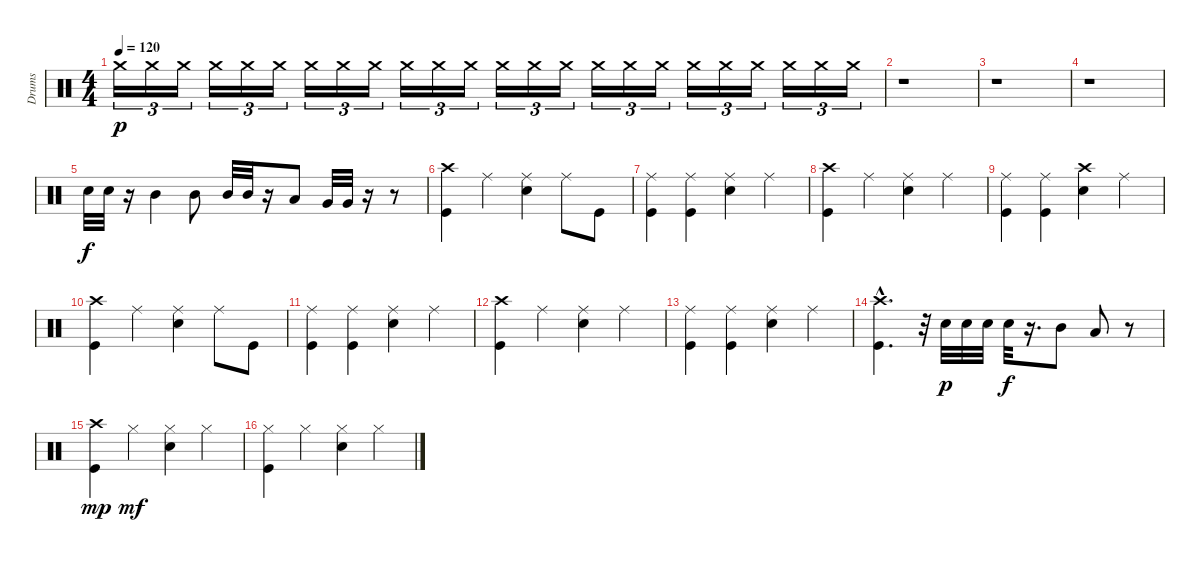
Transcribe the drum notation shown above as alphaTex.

\track ("Drums" "Drums") {instrument percussion}
\staff {score}
\articulation defaults
\ts (4 4)
\tempo 120
\clef neutral
\ks c "Crash medium (hit)".16{tu (3 2) dy p volume 16} "Crash medium (hit)".16{tu (3 2)} "Crash medium (hit)".16{tu (3 2)} "Crash medium (hit)".16{tu (3 2)} "Crash medium (hit)".16{tu (3 2)} "Crash medium (hit)".16{tu (3 2)} "Crash medium (hit)".16{tu (3 2)} "Crash medium (hit)".16{tu (3 2)} "Crash medium (hit)".16{tu (3 2)} "Crash medium (hit)".16{tu (3 2)} "Crash medium (hit)".16{tu (3 2)} "Crash medium (hit)".16{tu (3 2)} "Crash medium (hit)".16{tu (3 2)} "Crash medium (hit)".16{tu (3 2)} "Crash medium (hit)".16{tu (3 2)} "Crash medium (hit)".16{tu (3 2)} "Crash medium (hit)".16{tu (3 2)} "Crash medium (hit)".16{tu (3 2)} "Crash medium (hit)".16{tu (3 2)} "Crash medium (hit)".16{tu (3 2)} "Crash medium (hit)".16{tu (3 2)} "Crash medium (hit)".16{tu (3 2)} "Crash medium (hit)".16{tu (3 2)} "Crash medium (hit)".16{tu (3 2)}
|
r.1 |
r.1 |
r.1 |
"Snare (hit) 2".32{dy f} "Snare (hit) 2".32 r.16 "Mid Tom (hit)".4 "Mid Tom (hit)".8 "Mid Tom (hit)".32 "Mid Tom (hit)".32 r.16 "Low Tom (hit)".8 "Very Low Tom (hit)".32 "Very Low Tom (hit)".32 r.16 r.8 |
("Crash high (hit)" "Kick (hit)").4 "Ride (middle)".4 ("Ride (middle)" "Snare (hit) 2").4 "Ride (middle)".8 "Kick (hit)".8 |
("Ride (middle)" "Kick (hit)").4 ("Ride (middle)" "Kick (hit)").4 ("Ride (middle)" "Snare (hit) 2").4 "Ride (middle)".4 |
("Crash high (hit)" "Kick (hit)").4 "Ride (middle)".4 ("Ride (middle)" "Snare (hit) 2").4 "Ride (middle)".4 |
("Ride (middle)" "Kick (hit)").4 ("Ride (middle)" "Kick (hit)").4 ("Crash high (hit)" "Snare (hit) 2").4 "Ride (middle)".4 |
("Crash high (hit)" "Kick (hit)").4 "Ride (middle)".4 ("Ride (middle)" "Snare (hit) 2").4 "Ride (middle)".8 "Kick (hit)".8 |
("Ride (middle)" "Kick (hit)").4 ("Ride (middle)" "Kick (hit)").4 ("Ride (middle)" "Snare (hit) 2").4 "Ride (middle)".4 |
("Crash high (hit)" "Kick (hit)").4 "Ride (middle)".4 ("Ride (middle)" "Snare (hit) 2").4 "Ride (middle)".4 |
("Ride (middle)" "Kick (hit)").4 ("Ride (middle)" "Kick (hit)").4 ("Ride (middle)" "Snare (hit) 2").4 "Ride (middle)".4 |
("Crash high (hit)"{hac} "Kick (hit)"{hac}).4{d} r.32 "Snare (hit) 2".32{dy p} "Snare (hit) 2".32 "Snare (hit) 2".32 "Snare (hit) 2".32{dy f} r.16{d} "Mid Tom (hit)".8 "Low Tom (hit)".8 r.8 |
("Crash high (hit)" "Kick (hit)").4{dy mp} "Hi-Hat (closed)".4{dy mf} ("Hi-Hat (closed)" "Snare (hit) 2").4 "Hi-Hat (closed)".4 |
("Hi-Hat (closed)" "Kick (hit)").4 "Hi-Hat (closed)".4 ("Hi-Hat (closed)" "Snare (hit) 2").4 "Hi-Hat (closed)".4
